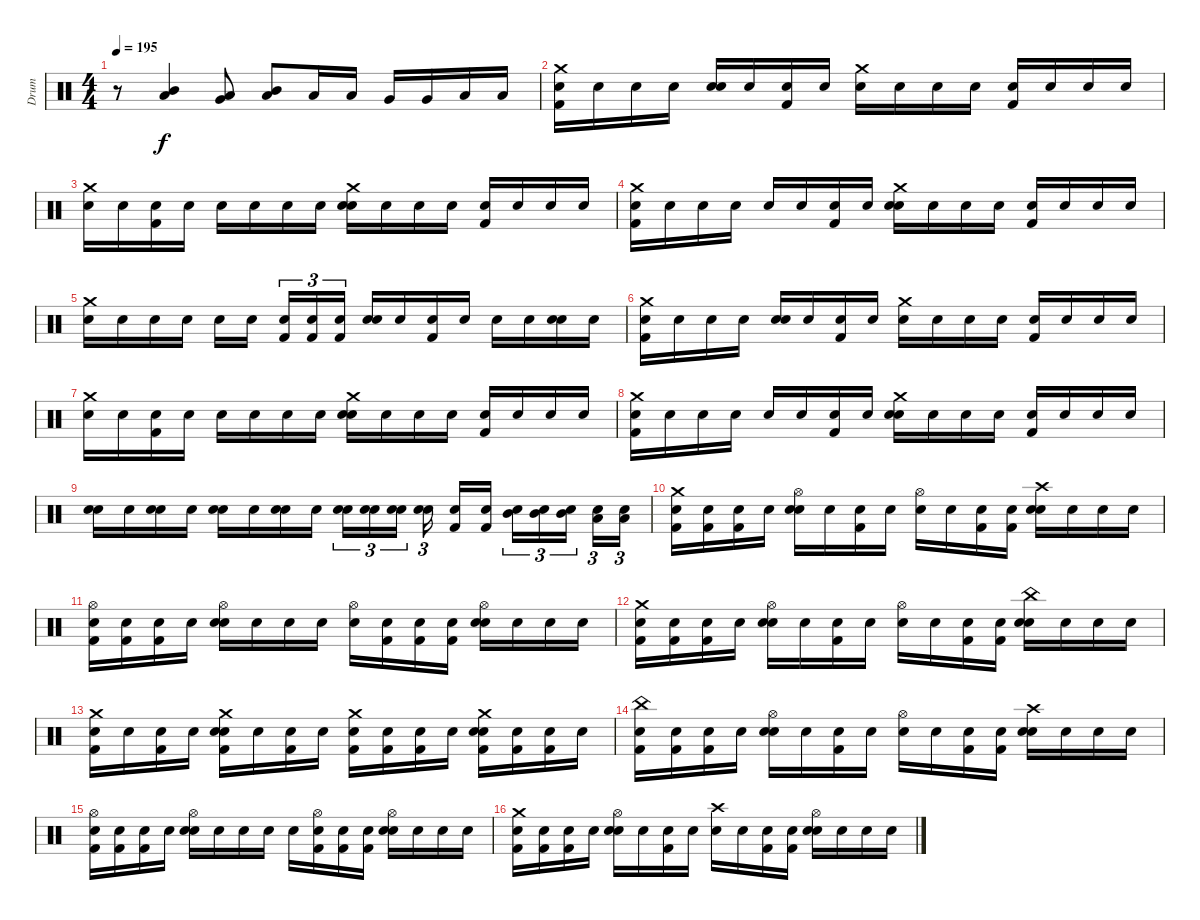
\track ("Drum" "Drum") {instrument percussion}
\staff {score}
\articulation defaults
\ts (4 4)
\tempo 195
\clef neutral
\ks c
r.8{dy f} ("Mid Tom (hit)" "Low Tom (hit)").4 ("Very Low Tom (hit)" "Low Tom (hit)").8 ("Mid Tom (hit)" "Low Tom (hit)").8 "Low Tom (hit)".16 "Low Tom (hit)".16 "Very Low Tom (hit)".16 "Very Low Tom (hit)".16 "Low Floor Tom (hit)".16 "Low Floor Tom (hit)".16 |
("Crash medium (hit)" "Snare (hit)" "Kick (hit) 2").16 "Snare (hit)".16 "Snare (hit)".16 "Snare (hit)".16 ("Snare (hit)" "Snare (hit) 2").16 "Snare (hit)".16 ("Snare (hit)" "Kick (hit) 2").16 "Snare (hit)".16 ("Crash medium (hit)" "Snare (hit)").16 "Snare (hit)".16 "Snare (hit)".16 "Snare (hit)".16 ("Snare (hit)" "Kick (hit) 2").16 "Snare (hit)".16 "Snare (hit)".16 "Snare (hit)".16 |
("Crash medium (hit)" "Snare (hit)").16 "Snare (hit)".16 ("Snare (hit)" "Kick (hit) 2").16 "Snare (hit)".16 "Snare (hit)".16 "Snare (hit)".16 "Snare (hit)".16 "Snare (hit)".16 ("Crash medium (hit)" "Snare (hit)" "Snare (hit) 2").16 "Snare (hit)".16 "Snare (hit)".16 "Snare (hit)".16 ("Snare (hit)" "Kick (hit) 2").16 "Snare (hit)".16 "Snare (hit)".16 "Snare (hit)".16 |
("Crash medium (hit)" "Snare (hit)" "Kick (hit) 2").16 "Snare (hit)".16 "Snare (hit)".16 "Snare (hit)".16 "Snare (hit)".16 "Snare (hit)".16 ("Snare (hit)" "Kick (hit) 2").16 "Snare (hit)".16 ("Crash medium (hit)" "Snare (hit)" "Snare (hit) 2").16 "Snare (hit)".16 "Snare (hit)".16 "Snare (hit)".16 ("Snare (hit)" "Kick (hit) 2").16 "Snare (hit)".16 "Snare (hit)".16 "Snare (hit)".16 |
("Crash medium (hit)" "Snare (hit)").16 "Snare (hit)".16 "Snare (hit)".16 "Snare (hit)".16 "Snare (hit)".16 "Snare (hit)".16{beam splitsecondary} ("Snare (hit)" "Kick (hit) 2").16{tu (3 2)} ("Snare (hit)" "Kick (hit) 2").16{tu (3 2)} ("Snare (hit)" "Kick (hit) 2").16{tu (3 2)} ("Snare (hit)" "Snare (hit) 2").16 "Snare (hit)".16 ("Snare (hit)" "Kick (hit) 2").16 "Snare (hit)".16 "Snare (hit)".16 "Snare (hit)".16 ("Snare (hit)" "Snare (hit) 2").16 "Snare (hit)".16 |
("Crash medium (hit)" "Snare (hit)" "Kick (hit) 2").16 "Snare (hit)".16 "Snare (hit)".16 "Snare (hit)".16 ("Snare (hit)" "Snare (hit) 2").16 "Snare (hit)".16 ("Snare (hit)" "Kick (hit) 2").16 "Snare (hit)".16 ("Crash medium (hit)" "Snare (hit)").16 "Snare (hit)".16 "Snare (hit)".16 "Snare (hit)".16 ("Snare (hit)" "Kick (hit) 2").16 "Snare (hit)".16 "Snare (hit)".16 "Snare (hit)".16 |
("Crash medium (hit)" "Snare (hit)").16 "Snare (hit)".16 ("Snare (hit)" "Kick (hit) 2").16 "Snare (hit)".16 "Snare (hit)".16 "Snare (hit)".16 "Snare (hit)".16 "Snare (hit)".16 ("Crash medium (hit)" "Snare (hit)" "Snare (hit) 2").16 "Snare (hit)".16 "Snare (hit)".16 "Snare (hit)".16 ("Snare (hit)" "Kick (hit) 2").16 "Snare (hit)".16 "Snare (hit)".16 "Snare (hit)".16 |
("Crash medium (hit)" "Snare (hit)" "Kick (hit) 2").16 "Snare (hit)".16 "Snare (hit)".16 "Snare (hit)".16 "Snare (hit)".16 "Snare (hit)".16 ("Snare (hit)" "Kick (hit) 2").16 "Snare (hit)".16 ("Crash medium (hit)" "Snare (hit)" "Snare (hit) 2").16 "Snare (hit)".16 "Snare (hit)".16 "Snare (hit)".16 ("Snare (hit)" "Kick (hit) 2").16 "Snare (hit)".16 "Snare (hit)".16 "Snare (hit)".16 |
("Snare (hit)" "Snare (hit) 2").16 "Snare (hit)".16 ("Snare (hit)" "Snare (hit) 2").16 "Snare (hit)".16 ("Snare (hit)" "Snare (hit) 2").16 "Snare (hit)".16 ("Snare (hit)" "Snare (hit) 2").16 "Snare (hit)".16 ("Snare (hit)" "Snare (hit) 2").16{tu (3 2)} ("Snare (hit)" "Snare (hit) 2").16{tu (3 2)} ("Snare (hit)" "Snare (hit) 2").16{tu (3 2) beam splitsecondary} ("Snare (hit)" "Snare (hit) 2").16{tu (3 2) beam splitsecondary} ("Snare (hit)" "Kick (hit) 2").16 ("Snare (hit)" "Kick (hit) 2").16 ("Snare (hit)" "Mid Tom (hit)").16{tu (3 2)} ("Snare (hit)" "Mid Tom (hit)").16{tu (3 2)} ("Snare (hit)" "Mid Tom (hit)").16{tu (3 2) beam splitsecondary} ("Snare (hit)" "Low Tom (hit)").16{tu (3 2)} ("Snare (hit)" "Low Tom (hit)").16{tu (3 2)} |
("Crash medium (hit)" "Snare (hit)" "Kick (hit) 2").16 ("Snare (hit)" "Kick (hit) 2").16 ("Snare (hit)" "Kick (hit) 2").16 "Snare (hit)".16 ("Hi-Hat (open)" "Snare (hit) 2" "Snare (hit)").16 "Snare (hit)".16 ("Snare (hit)" "Kick (hit) 2").16 "Snare (hit)".16 ("Hi-Hat (open)" "Snare (hit)").16 "Snare (hit)".16 ("Snare (hit)" "Kick (hit) 2").16 ("Snare (hit)" "Kick (hit) 2").16 ("Crash high (hit)" "Snare (hit) 2" "Snare (hit)").16 "Snare (hit)".16 "Snare (hit)".16 "Snare (hit)".16 |
("Hi-Hat (open)" "Snare (hit)" "Kick (hit) 2").16 ("Snare (hit)" "Kick (hit) 2").16 ("Snare (hit)" "Kick (hit) 2").16 "Snare (hit)".16 ("Hi-Hat (open)" "Snare (hit) 2" "Snare (hit)").16 "Snare (hit)".16 "Snare (hit)".16 "Snare (hit)".16 ("Hi-Hat (open)" "Snare (hit)").16 ("Snare (hit)" "Kick (hit) 2").16 ("Snare (hit)" "Kick (hit) 2").16 ("Snare (hit)" "Kick (hit) 2").16 ("Hi-Hat (open)" "Snare (hit) 2" "Snare (hit)").16 "Snare (hit)".16 "Snare (hit)".16 "Snare (hit)".16 |
("Crash medium (hit)" "Snare (hit)" "Kick (hit) 2").16 ("Snare (hit)" "Kick (hit) 2").16 ("Snare (hit)" "Kick (hit) 2").16 "Snare (hit)".16 ("Hi-Hat (open)" "Snare (hit) 2" "Snare (hit)").16 "Snare (hit)".16 ("Snare (hit)" "Kick (hit) 2").16 "Snare (hit)".16 ("Hi-Hat (open)" "Snare (hit)").16 "Snare (hit)".16 ("Snare (hit)" "Kick (hit) 2").16 ("Snare (hit)" "Kick (hit) 2").16 ("China (hit)" "Snare (hit) 2" "Snare (hit)").16 "Snare (hit)".16 "Snare (hit)".16 "Snare (hit)".16 |
("Crash medium (hit)" "Snare (hit)" "Kick (hit) 2").16 "Snare (hit)".16 ("Snare (hit)" "Kick (hit) 2").16 "Snare (hit)".16 ("Crash medium (hit)" "Snare (hit) 2" "Snare (hit)" "Kick (hit) 2").16 "Snare (hit)".16 ("Snare (hit)" "Kick (hit) 2").16 "Snare (hit)".16 ("Crash medium (hit)" "Snare (hit)" "Kick (hit) 2").16 ("Snare (hit)" "Kick (hit) 2").16 ("Snare (hit)" "Kick (hit) 2").16 "Snare (hit)".16 ("Crash medium (hit)" "Snare (hit) 2" "Snare (hit)" "Kick (hit) 2").16 ("Snare (hit)" "Kick (hit) 2").16 ("Snare (hit)" "Kick (hit) 2").16 "Snare (hit)".16 |
("China (hit)" "Snare (hit)" "Kick (hit) 2").16 ("Snare (hit)" "Kick (hit) 2").16 ("Snare (hit)" "Kick (hit) 2").16 "Snare (hit)".16 ("Hi-Hat (open)" "Snare (hit) 2" "Snare (hit)").16 "Snare (hit)".16 ("Snare (hit)" "Kick (hit) 2").16 "Snare (hit)".16 ("Hi-Hat (open)" "Snare (hit)").16 "Snare (hit)".16 ("Snare (hit)" "Kick (hit) 2").16 ("Snare (hit)" "Kick (hit) 2").16 ("Crash high (hit)" "Snare (hit) 2" "Snare (hit)").16 "Snare (hit)".16 "Snare (hit)".16 "Snare (hit)".16 |
("Hi-Hat (open)" "Snare (hit)" "Kick (hit) 2").16 ("Snare (hit)" "Kick (hit) 2").16 ("Snare (hit)" "Kick (hit) 2").16 "Snare (hit)".16 ("Hi-Hat (open)" "Snare (hit) 2" "Snare (hit)").16 "Snare (hit)".16 "Snare (hit)".16 "Snare (hit)".16 "Snare (hit)".16 ("Hi-Hat (open)" "Snare (hit)" "Kick (hit) 2").16 ("Snare (hit)" "Kick (hit) 2").16 ("Snare (hit)" "Kick (hit) 2").16 ("Hi-Hat (open)" "Snare (hit) 2" "Snare (hit)").16 "Snare (hit)".16 "Snare (hit)".16 "Snare (hit)".16 |
("Crash medium (hit)" "Snare (hit)" "Kick (hit) 2").16 ("Snare (hit)" "Kick (hit) 2").16 ("Snare (hit)" "Kick (hit) 2").16 "Snare (hit)".16 ("Hi-Hat (open)" "Snare (hit) 2" "Snare (hit)").16 "Snare (hit)".16 ("Snare (hit)" "Kick (hit) 2").16 "Snare (hit)".16 ("Crash high (hit)" "Snare (hit)").16 "Snare (hit)".16 ("Snare (hit)" "Kick (hit) 2").16 ("Snare (hit)" "Kick (hit) 2").16 ("Hi-Hat (open)" "Snare (hit) 2" "Snare (hit)").16 "Snare (hit)".16 "Snare (hit)".16 "Snare (hit)".16
